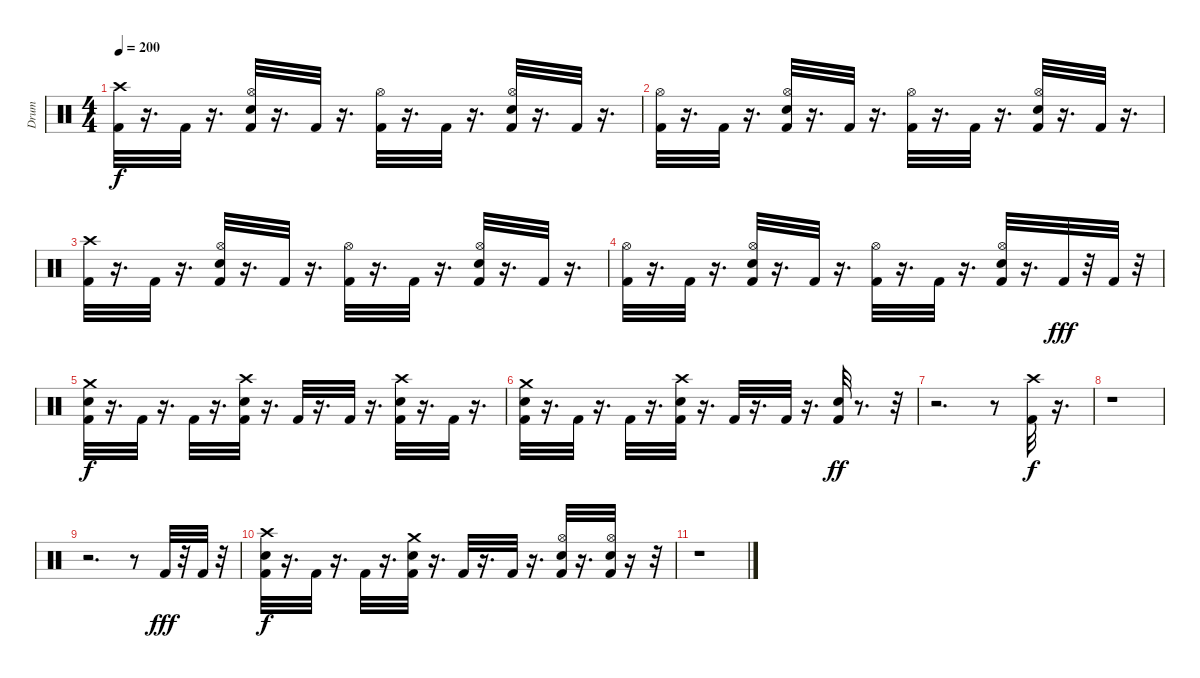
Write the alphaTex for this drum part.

\track ("Drum" "Drum") {instrument percussion}
\staff {score}
\articulation defaults
\ts (4 4)
\tempo 200
\clef neutral
\ks c
("Crash high (hit)" "Kick (hit) 2").32{dy f} r.16{d} "Kick (hit) 2".32 r.16{d} ("Kick (hit) 2" "Hi-Hat (open)" "Snare (hit) 2").32 r.16{d} "Kick (hit) 2".32 r.16{d} ("Kick (hit) 2" "Hi-Hat (open)").32 r.16{d} "Kick (hit) 2".32 r.16{d} ("Kick (hit) 2" "Hi-Hat (open)" "Snare (hit) 2").32 r.16{d} "Kick (hit) 2".32 r.16{d} |
("Kick (hit) 2" "Hi-Hat (open)").32 r.16{d} "Kick (hit) 2".32 r.16{d} ("Kick (hit) 2" "Hi-Hat (open)" "Snare (hit) 2").32 r.16{d} "Kick (hit) 2".32 r.16{d} ("Kick (hit) 2" "Hi-Hat (open)").32 r.16{d} "Kick (hit) 2".32 r.16{d} ("Kick (hit) 2" "Hi-Hat (open)" "Snare (hit) 2").32 r.16{d} "Kick (hit) 2".32 r.16{d} |
("Crash high (hit)" "Kick (hit) 2").32 r.16{d} "Kick (hit) 2".32 r.16{d} ("Kick (hit) 2" "Hi-Hat (open)" "Snare (hit) 2").32 r.16{d} "Kick (hit) 2".32 r.16{d} ("Kick (hit) 2" "Hi-Hat (open)").32 r.16{d} "Kick (hit) 2".32 r.16{d} ("Kick (hit) 2" "Hi-Hat (open)" "Snare (hit) 2").32 r.16{d} "Kick (hit) 2".32 r.16{d} |
("Kick (hit) 2" "Hi-Hat (open)").32 r.16{d} "Kick (hit) 2".32 r.16{d} ("Kick (hit) 2" "Hi-Hat (open)" "Snare (hit) 2").32 r.16{d} "Kick (hit) 2".32 r.16{d} ("Kick (hit) 2" "Hi-Hat (open)").32 r.16{d} "Kick (hit) 2".32 r.16{d} ("Kick (hit) 2" "Hi-Hat (open)" "Snare (hit) 2").32 r.16{d} "Kick (hit) 2".32{dy fff} r.32 "Kick (hit) 2".32 r.32 |
("Crash medium (hit)" "Snare (hit) 2" "Kick (hit) 2").32{dy f} r.16{d} "Kick (hit) 2".32 r.16{d} "Kick (hit) 2".32 r.16{d} ("Crash high (hit)" "Snare (hit) 2" "Kick (hit) 2").32 r.16{d} "Kick (hit) 2".32 r.16{d} "Kick (hit) 2".32 r.16{d} ("Crash high (hit)" "Kick (hit) 2" "Snare (hit) 2").32 r.16{d} "Kick (hit) 2".32 r.16{d} |
("Crash medium (hit)" "Snare (hit) 2" "Kick (hit) 2").32 r.16{d} "Kick (hit) 2".32 r.16{d} "Kick (hit) 2".32 r.16{d} ("Crash high (hit)" "Snare (hit) 2" "Kick (hit) 2").32 r.16{d} "Kick (hit) 2".32 r.16{d} "Kick (hit) 2".32 r.16{d} ("Kick (hit) 2" "Snare (hit) 2").32{dy ff} r.8{d} r.32 |
r.2{d} r.8 ("Crash high (hit)" "Kick (hit) 2").32{dy f} r.16{d} |
r.1 |
r.2{d} r.8 "Kick (hit) 2".32{dy fff} r.32 "Kick (hit) 2".32 r.32 |
("Crash high (hit)" "Kick (hit) 2" "Snare (hit) 2").32{dy f} r.16{d} "Kick (hit) 2".32 r.16{d} "Kick (hit) 2".32 r.16{d} ("Crash medium (hit)" "Kick (hit) 2" "Snare (hit) 2").32 r.16{d} "Kick (hit) 2".32 r.16{d} "Kick (hit) 2".32 r.16{d} ("Kick (hit) 2" "Hi-Hat (open)" "Snare (hit) 2").32 r.16{d} ("Kick (hit) 2" "Hi-Hat (open)" "Snare (hit) 2").32 r.16 r.32 |
r.1
